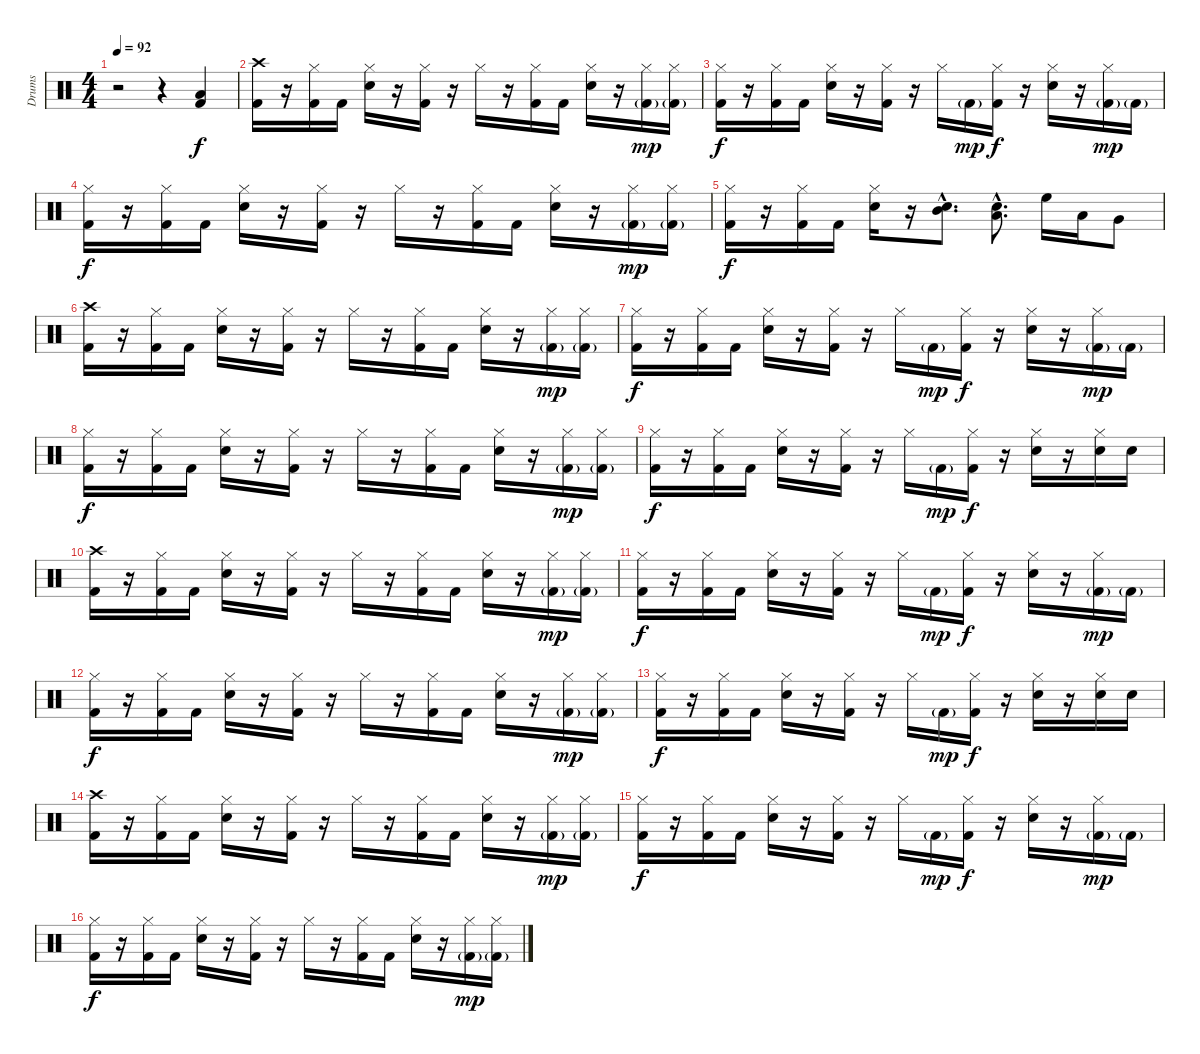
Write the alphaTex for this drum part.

\track ("Drums" "Drums") {instrument percussion}
\staff {score}
\articulation defaults
\ts (4 4)
\tempo 92
\clef neutral
\ks c
r.2{dy f} r.4 ("Low Floor Tom (hit)" "Kick (hit) 2").4 |
("Crash high (hit)" "Kick (hit) 2").16 r.16 ("Hi-Hat (closed)" "Kick (hit) 2").16 "Kick (hit) 2".16 ("Hi-Hat (closed)" "Snare (hit) 2").16 r.16 ("Hi-Hat (closed)" "Kick (hit) 2").16 r.16 "Hi-Hat (closed)".16 r.16 ("Hi-Hat (closed)" "Kick (hit) 2").16 "Kick (hit) 2".16 ("Hi-Hat (closed)" "Snare (hit) 2").16 r.16 ("Hi-Hat (closed)" "Kick (hit) 2"{g}).16{dy mp} ("Hi-Hat (closed)" "Kick (hit) 2"{g}).16 |
("Hi-Hat (closed)" "Kick (hit) 2").16{dy f} r.16 ("Hi-Hat (closed)" "Kick (hit) 2").16 "Kick (hit) 2".16 ("Hi-Hat (closed)" "Snare (hit) 2").16 r.16 ("Hi-Hat (closed)" "Kick (hit) 2").16 r.16 "Hi-Hat (closed)".16 "Kick (hit) 2"{g}.16{dy mp} ("Hi-Hat (closed)" "Kick (hit) 2").16{dy f} r.16 ("Hi-Hat (closed)" "Snare (hit) 2").16 r.16 ("Hi-Hat (closed)" "Kick (hit) 2"{g}).16{dy mp} "Kick (hit) 2"{g}.16 |
("Hi-Hat (closed)" "Kick (hit) 2").16{dy f} r.16 ("Hi-Hat (closed)" "Kick (hit) 2").16 "Kick (hit) 2".16 ("Hi-Hat (closed)" "Snare (hit) 2").16 r.16 ("Hi-Hat (closed)" "Kick (hit) 2").16 r.16 "Hi-Hat (closed)".16 r.16 ("Hi-Hat (closed)" "Kick (hit) 2").16 "Kick (hit) 2".16 ("Hi-Hat (closed)" "Snare (hit) 2").16 r.16 ("Hi-Hat (closed)" "Kick (hit) 2"{g}).16{dy mp} ("Hi-Hat (closed)" "Kick (hit) 2"{g}).16 |
("Hi-Hat (closed)" "Kick (hit) 2").16{dy f} r.16 ("Hi-Hat (closed)" "Kick (hit) 2").16 "Kick (hit) 2".16 ("Hi-Hat (closed)" "Snare (hit) 2").16 r.16 ("Mid Tom (hit)"{hac} "Snare (hit) 2"{hac}).8{d} ("Low Tom (hit)"{hac} "Snare (hit) 2"{hac}).8{d} "High Floor Tom (hit)".16 "Low Tom (hit)".16 "Very Low Tom (hit)".8 |
("Crash high (hit)" "Kick (hit) 2").16 r.16 ("Hi-Hat (closed)" "Kick (hit) 2").16 "Kick (hit) 2".16 ("Hi-Hat (closed)" "Snare (hit) 2").16 r.16 ("Hi-Hat (closed)" "Kick (hit) 2").16 r.16 "Hi-Hat (closed)".16 r.16 ("Hi-Hat (closed)" "Kick (hit) 2").16 "Kick (hit) 2".16 ("Hi-Hat (closed)" "Snare (hit) 2").16 r.16 ("Hi-Hat (closed)" "Kick (hit) 2"{g}).16{dy mp} ("Hi-Hat (closed)" "Kick (hit) 2"{g}).16 |
("Hi-Hat (closed)" "Kick (hit) 2").16{dy f} r.16 ("Hi-Hat (closed)" "Kick (hit) 2").16 "Kick (hit) 2".16 ("Hi-Hat (closed)" "Snare (hit) 2").16 r.16 ("Hi-Hat (closed)" "Kick (hit) 2").16 r.16 "Hi-Hat (closed)".16 "Kick (hit) 2"{g}.16{dy mp} ("Hi-Hat (closed)" "Kick (hit) 2").16{dy f} r.16 ("Hi-Hat (closed)" "Snare (hit) 2").16 r.16 ("Hi-Hat (closed)" "Kick (hit) 2"{g}).16{dy mp} "Kick (hit) 2"{g}.16 |
("Hi-Hat (closed)" "Kick (hit) 2").16{dy f} r.16 ("Hi-Hat (closed)" "Kick (hit) 2").16 "Kick (hit) 2".16 ("Hi-Hat (closed)" "Snare (hit) 2").16 r.16 ("Hi-Hat (closed)" "Kick (hit) 2").16 r.16 "Hi-Hat (closed)".16 r.16 ("Hi-Hat (closed)" "Kick (hit) 2").16 "Kick (hit) 2".16 ("Hi-Hat (closed)" "Snare (hit) 2").16 r.16 ("Hi-Hat (closed)" "Kick (hit) 2"{g}).16{dy mp} ("Hi-Hat (closed)" "Kick (hit) 2"{g}).16 |
("Hi-Hat (closed)" "Kick (hit) 2").16{dy f} r.16 ("Hi-Hat (closed)" "Kick (hit) 2").16 "Kick (hit) 2".16 ("Hi-Hat (closed)" "Snare (hit) 2").16 r.16 ("Hi-Hat (closed)" "Kick (hit) 2").16 r.16 "Hi-Hat (closed)".16 "Kick (hit) 2"{g}.16{dy mp} ("Hi-Hat (closed)" "Kick (hit) 2").16{dy f} r.16 ("Hi-Hat (closed)" "Snare (hit) 2").16 r.16 ("Hi-Hat (closed)" "Snare (hit) 2").16 "Snare (hit) 2".16 |
("Crash high (hit)" "Kick (hit) 2").16 r.16 ("Hi-Hat (closed)" "Kick (hit) 2").16 "Kick (hit) 2".16 ("Hi-Hat (closed)" "Snare (hit) 2").16 r.16 ("Hi-Hat (closed)" "Kick (hit) 2").16 r.16 "Hi-Hat (closed)".16 r.16 ("Hi-Hat (closed)" "Kick (hit) 2").16 "Kick (hit) 2".16 ("Hi-Hat (closed)" "Snare (hit) 2").16 r.16 ("Hi-Hat (closed)" "Kick (hit) 2"{g}).16{dy mp} ("Hi-Hat (closed)" "Kick (hit) 2"{g}).16 |
("Hi-Hat (closed)" "Kick (hit) 2").16{dy f} r.16 ("Hi-Hat (closed)" "Kick (hit) 2").16 "Kick (hit) 2".16 ("Hi-Hat (closed)" "Snare (hit) 2").16 r.16 ("Hi-Hat (closed)" "Kick (hit) 2").16 r.16 "Hi-Hat (closed)".16 "Kick (hit) 2"{g}.16{dy mp} ("Hi-Hat (closed)" "Kick (hit) 2").16{dy f} r.16 ("Hi-Hat (closed)" "Snare (hit) 2").16 r.16 ("Hi-Hat (closed)" "Kick (hit) 2"{g}).16{dy mp} "Kick (hit) 2"{g}.16 |
("Hi-Hat (closed)" "Kick (hit) 2").16{dy f} r.16 ("Hi-Hat (closed)" "Kick (hit) 2").16 "Kick (hit) 2".16 ("Hi-Hat (closed)" "Snare (hit) 2").16 r.16 ("Hi-Hat (closed)" "Kick (hit) 2").16 r.16 "Hi-Hat (closed)".16 r.16 ("Hi-Hat (closed)" "Kick (hit) 2").16 "Kick (hit) 2".16 ("Hi-Hat (closed)" "Snare (hit) 2").16 r.16 ("Hi-Hat (closed)" "Kick (hit) 2"{g}).16{dy mp} ("Hi-Hat (closed)" "Kick (hit) 2"{g}).16 |
("Hi-Hat (closed)" "Kick (hit) 2").16{dy f} r.16 ("Hi-Hat (closed)" "Kick (hit) 2").16 "Kick (hit) 2".16 ("Hi-Hat (closed)" "Snare (hit) 2").16 r.16 ("Hi-Hat (closed)" "Kick (hit) 2").16 r.16 "Hi-Hat (closed)".16 "Kick (hit) 2"{g}.16{dy mp} ("Hi-Hat (closed)" "Kick (hit) 2").16{dy f} r.16 ("Hi-Hat (closed)" "Snare (hit) 2").16 r.16 ("Hi-Hat (closed)" "Snare (hit) 2").16 "Snare (hit) 2".16 |
("Crash high (hit)" "Kick (hit) 2").16 r.16 ("Hi-Hat (closed)" "Kick (hit) 2").16 "Kick (hit) 2".16 ("Hi-Hat (closed)" "Snare (hit) 2").16 r.16 ("Hi-Hat (closed)" "Kick (hit) 2").16 r.16 "Hi-Hat (closed)".16 r.16 ("Hi-Hat (closed)" "Kick (hit) 2").16 "Kick (hit) 2".16 ("Hi-Hat (closed)" "Snare (hit) 2").16 r.16 ("Hi-Hat (closed)" "Kick (hit) 2"{g}).16{dy mp} ("Hi-Hat (closed)" "Kick (hit) 2"{g}).16 |
("Hi-Hat (closed)" "Kick (hit) 2").16{dy f} r.16 ("Hi-Hat (closed)" "Kick (hit) 2").16 "Kick (hit) 2".16 ("Hi-Hat (closed)" "Snare (hit) 2").16 r.16 ("Hi-Hat (closed)" "Kick (hit) 2").16 r.16 "Hi-Hat (closed)".16 "Kick (hit) 2"{g}.16{dy mp} ("Hi-Hat (closed)" "Kick (hit) 2").16{dy f} r.16 ("Hi-Hat (closed)" "Snare (hit) 2").16 r.16 ("Hi-Hat (closed)" "Kick (hit) 2"{g}).16{dy mp} "Kick (hit) 2"{g}.16 |
("Hi-Hat (closed)" "Kick (hit) 2").16{dy f} r.16 ("Hi-Hat (closed)" "Kick (hit) 2").16 "Kick (hit) 2".16 ("Hi-Hat (closed)" "Snare (hit) 2").16 r.16 ("Hi-Hat (closed)" "Kick (hit) 2").16 r.16 "Hi-Hat (closed)".16 r.16 ("Hi-Hat (closed)" "Kick (hit) 2").16 "Kick (hit) 2".16 ("Hi-Hat (closed)" "Snare (hit) 2").16 r.16 ("Hi-Hat (closed)" "Kick (hit) 2"{g}).16{dy mp} ("Hi-Hat (closed)" "Kick (hit) 2"{g}).16
